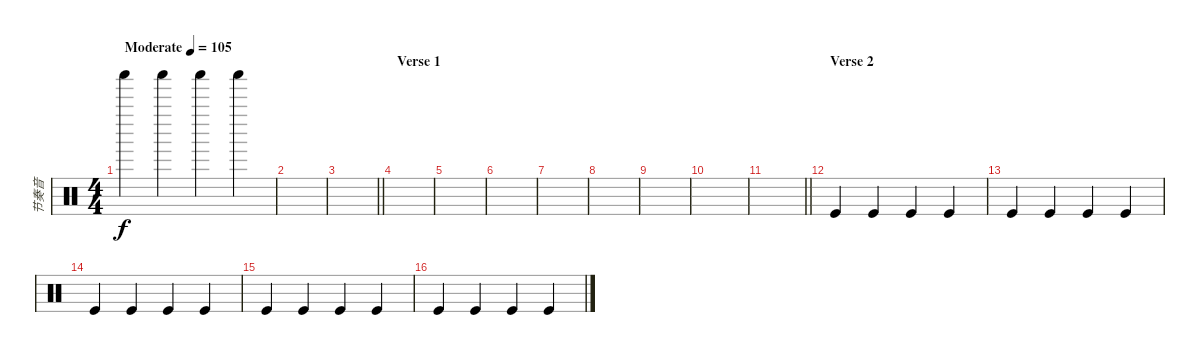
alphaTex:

\track ("节奏音" "节奏音") {instrument percussion}
\staff {score}
\articulation defaults
\ts (4 4)
\tempo (105 "Moderate")
\clef neutral
\ks c "Shaker (hit)".4{dy f} "Shaker (hit)".4 "Shaker (hit)".4 "Shaker (hit)".4
|
|
\barLineRight lightlight
|
\section ("" "Verse 1")
|
|
|
|
|
|
|
\barLineRight lightlight
|
\section ("" "Verse 2")
"Kick (hit)".4 "Kick (hit)".4 "Kick (hit)".4 "Kick (hit)".4 |
"Kick (hit)".4 "Kick (hit)".4 "Kick (hit)".4 "Kick (hit)".4 |
"Kick (hit)".4 "Kick (hit)".4 "Kick (hit)".4 "Kick (hit)".4 |
"Kick (hit)".4 "Kick (hit)".4 "Kick (hit)".4 "Kick (hit)".4 |
"Kick (hit)".4 "Kick (hit)".4 "Kick (hit)".4 "Kick (hit)".4
